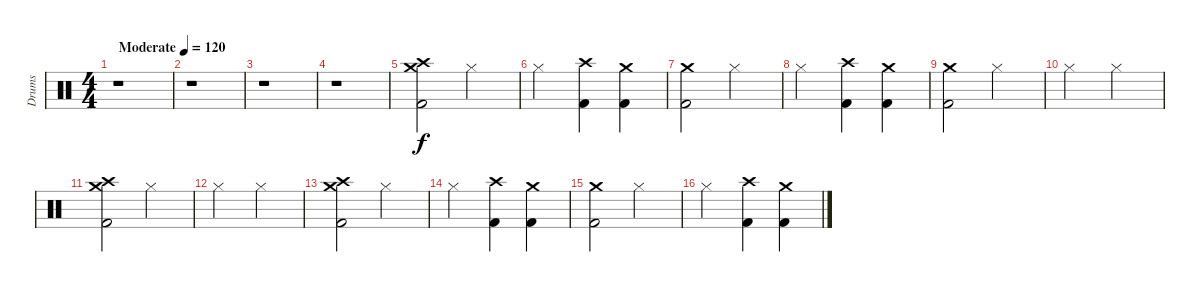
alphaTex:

\track ("Drums" "Drums") {instrument percussion}
\staff {score}
\articulation defaults
\ts (4 4)
\tempo (120 "Moderate")
\clef neutral
\ks c
r.1{dy f} |
r.1 |
r.1 |
r.1 |
("Crash high (hit)" "Crash medium (hit)" "Kick (hit) 2").2 "Hi-Hat (closed)".2 |
"Hi-Hat (closed)".2 ("Crash high (hit)" "Kick (hit) 2").4 ("Crash medium (hit)" "Kick (hit) 2").4 |
("Crash medium (hit)" "Kick (hit) 2").2 "Hi-Hat (closed)".2 |
"Hi-Hat (closed)".2 ("Crash high (hit)" "Kick (hit) 2").4 ("Crash medium (hit)" "Kick (hit) 2").4 |
("Crash medium (hit)" "Kick (hit) 2").2 "Hi-Hat (closed)".2 |
"Hi-Hat (closed)".2 "Hi-Hat (closed)".2 |
("Crash medium (hit)" "Crash high (hit)" "Kick (hit) 2").2 "Hi-Hat (closed)".2 |
"Hi-Hat (closed)".2 "Hi-Hat (closed)".2 |
("Crash medium (hit)" "Crash high (hit)" "Kick (hit) 2").2 "Hi-Hat (closed)".2 |
"Hi-Hat (closed)".2 ("Crash high (hit)" "Kick (hit) 2").4 ("Crash medium (hit)" "Kick (hit) 2").4 |
("Crash medium (hit)" "Kick (hit) 2").2 "Hi-Hat (closed)".2 |
"Hi-Hat (closed)".2 ("Crash high (hit)" "Kick (hit) 2").4 ("Crash medium (hit)" "Kick (hit) 2").4
